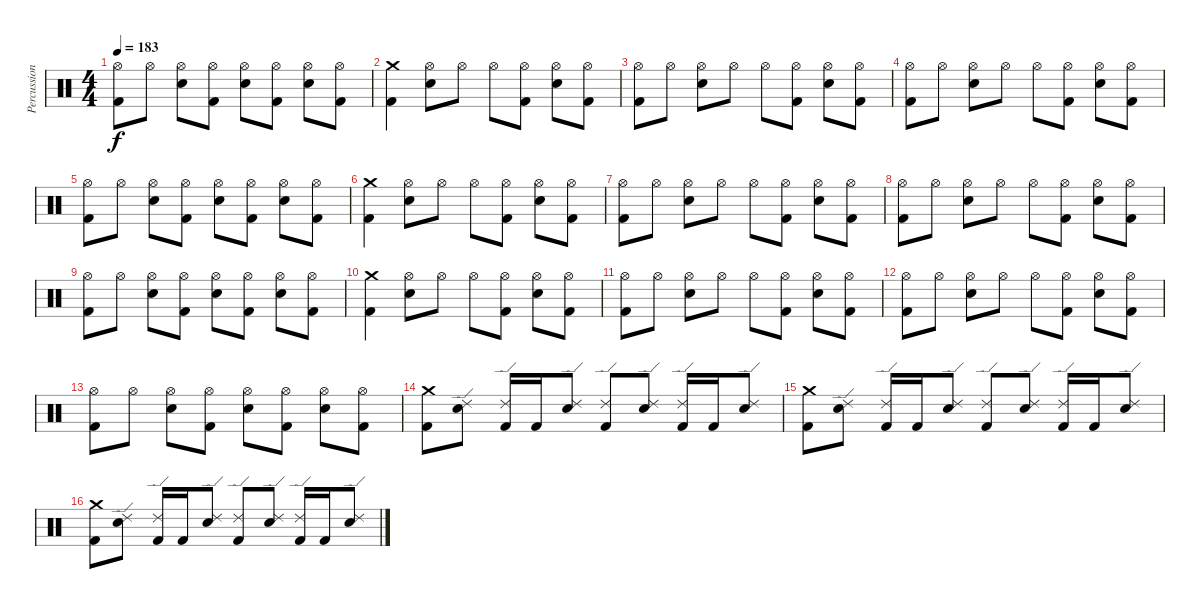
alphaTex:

\track ("Percussion" "Percussion") {instrument percussion}
\staff {score}
\articulation defaults
\ts (4 4)
\tempo 183
\clef neutral
\ks c
("Hi-Hat (open)" "Kick (hit) 2").8{dy f} "Hi-Hat (open)".8 ("Hi-Hat (open)" "Snare (hit) 2").8 ("Hi-Hat (open)" "Kick (hit) 2").8 ("Hi-Hat (open)" "Snare (hit) 2").8 ("Hi-Hat (open)" "Kick (hit) 2").8 ("Hi-Hat (open)" "Snare (hit) 2").8 ("Hi-Hat (open)" "Kick (hit) 2").8 |
("Crash medium (hit)" "Kick (hit) 2").4 ("Hi-Hat (open)" "Snare (hit) 2").8 "Hi-Hat (open)".8 "Hi-Hat (open)".8 ("Hi-Hat (open)" "Kick (hit) 2").8 ("Hi-Hat (open)" "Snare (hit) 2").8 ("Hi-Hat (open)" "Kick (hit) 2").8 |
("Hi-Hat (open)" "Kick (hit) 2").8 "Hi-Hat (open)".8 ("Hi-Hat (open)" "Snare (hit) 2").8 "Hi-Hat (open)".8 "Hi-Hat (open)".8 ("Hi-Hat (open)" "Kick (hit) 2").8 ("Hi-Hat (open)" "Snare (hit) 2").8 ("Hi-Hat (open)" "Kick (hit) 2").8 |
("Hi-Hat (open)" "Kick (hit) 2").8 "Hi-Hat (open)".8 ("Hi-Hat (open)" "Snare (hit) 2").8 "Hi-Hat (open)".8 "Hi-Hat (open)".8 ("Hi-Hat (open)" "Kick (hit) 2").8 ("Hi-Hat (open)" "Snare (hit) 2").8 ("Hi-Hat (open)" "Kick (hit) 2").8 |
("Hi-Hat (open)" "Kick (hit) 2").8 "Hi-Hat (open)".8 ("Hi-Hat (open)" "Snare (hit) 2").8 ("Hi-Hat (open)" "Kick (hit) 2").8 ("Hi-Hat (open)" "Snare (hit) 2").8 ("Hi-Hat (open)" "Kick (hit) 2").8 ("Hi-Hat (open)" "Snare (hit) 2").8 ("Hi-Hat (open)" "Kick (hit) 2").8 |
("Crash medium (hit)" "Kick (hit) 2").4 ("Hi-Hat (open)" "Snare (hit) 2").8 "Hi-Hat (open)".8 "Hi-Hat (open)".8 ("Hi-Hat (open)" "Kick (hit) 2").8 ("Hi-Hat (open)" "Snare (hit) 2").8 ("Hi-Hat (open)" "Kick (hit) 2").8 |
("Hi-Hat (open)" "Kick (hit) 2").8 "Hi-Hat (open)".8 ("Hi-Hat (open)" "Snare (hit) 2").8 "Hi-Hat (open)".8 "Hi-Hat (open)".8 ("Hi-Hat (open)" "Kick (hit) 2").8 ("Hi-Hat (open)" "Snare (hit) 2").8 ("Hi-Hat (open)" "Kick (hit) 2").8 |
("Hi-Hat (open)" "Kick (hit) 2").8 "Hi-Hat (open)".8 ("Hi-Hat (open)" "Snare (hit) 2").8 "Hi-Hat (open)".8 "Hi-Hat (open)".8 ("Hi-Hat (open)" "Kick (hit) 2").8 ("Hi-Hat (open)" "Snare (hit) 2").8 ("Hi-Hat (open)" "Kick (hit) 2").8 |
("Hi-Hat (open)" "Kick (hit) 2").8 "Hi-Hat (open)".8 ("Hi-Hat (open)" "Snare (hit) 2").8 ("Hi-Hat (open)" "Kick (hit) 2").8 ("Hi-Hat (open)" "Snare (hit) 2").8 ("Hi-Hat (open)" "Kick (hit) 2").8 ("Hi-Hat (open)" "Snare (hit) 2").8 ("Hi-Hat (open)" "Kick (hit) 2").8 |
("Crash medium (hit)" "Kick (hit) 2").4 ("Hi-Hat (open)" "Snare (hit) 2").8 "Hi-Hat (open)".8 "Hi-Hat (open)".8 ("Hi-Hat (open)" "Kick (hit) 2").8 ("Hi-Hat (open)" "Snare (hit) 2").8 ("Hi-Hat (open)" "Kick (hit) 2").8 |
("Hi-Hat (open)" "Kick (hit) 2").8 "Hi-Hat (open)".8 ("Hi-Hat (open)" "Snare (hit) 2").8 "Hi-Hat (open)".8 "Hi-Hat (open)".8 ("Hi-Hat (open)" "Kick (hit) 2").8 ("Hi-Hat (open)" "Snare (hit) 2").8 ("Hi-Hat (open)" "Kick (hit) 2").8 |
("Hi-Hat (open)" "Kick (hit) 2").8 "Hi-Hat (open)".8 ("Hi-Hat (open)" "Snare (hit) 2").8 "Hi-Hat (open)".8 "Hi-Hat (open)".8 ("Hi-Hat (open)" "Kick (hit) 2").8 ("Hi-Hat (open)" "Snare (hit) 2").8 ("Hi-Hat (open)" "Kick (hit) 2").8 |
("Hi-Hat (open)" "Kick (hit) 2").8 "Hi-Hat (open)".8 ("Hi-Hat (open)" "Snare (hit) 2").8 ("Hi-Hat (open)" "Kick (hit) 2").8 ("Hi-Hat (open)" "Snare (hit) 2").8 ("Hi-Hat (open)" "Kick (hit) 2").8 ("Hi-Hat (open)" "Snare (hit) 2").8 ("Hi-Hat (open)" "Kick (hit) 2").8 |
("Crash medium (hit)" "Kick (hit) 2").8 ("Ride (edge) 2" "Snare (hit) 2").8 ("Ride (edge) 2" "Kick (hit) 2").16 "Kick (hit) 2".16 ("Ride (edge) 2" "Snare (hit) 2").8 ("Ride (edge) 2" "Kick (hit) 2").8 ("Ride (edge) 2" "Snare (hit) 2").8 ("Ride (edge) 2" "Kick (hit) 2").16 "Kick (hit) 2".16 ("Ride (edge) 2" "Snare (hit) 2").8 |
("Crash medium (hit)" "Kick (hit) 2").8 ("Ride (edge) 2" "Snare (hit) 2").8 ("Ride (edge) 2" "Kick (hit) 2").16 "Kick (hit) 2".16 ("Ride (edge) 2" "Snare (hit) 2").8 ("Ride (edge) 2" "Kick (hit) 2").8 ("Ride (edge) 2" "Snare (hit) 2").8 ("Ride (edge) 2" "Kick (hit) 2").16 "Kick (hit) 2".16 ("Ride (edge) 2" "Snare (hit) 2").8 |
("Crash medium (hit)" "Kick (hit) 2").8 ("Ride (edge) 2" "Snare (hit) 2").8 ("Ride (edge) 2" "Kick (hit) 2").16 "Kick (hit) 2".16 ("Ride (edge) 2" "Snare (hit) 2").8 ("Ride (edge) 2" "Kick (hit) 2").8 ("Ride (edge) 2" "Snare (hit) 2").8 ("Ride (edge) 2" "Kick (hit) 2").16 "Kick (hit) 2".16 ("Ride (edge) 2" "Snare (hit) 2").8
